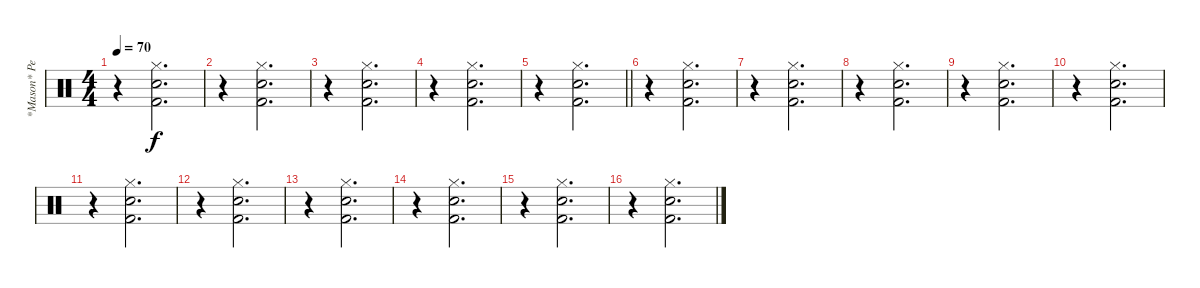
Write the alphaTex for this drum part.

\track ("*Mason* Percussion" "*Mason* Pe") {instrument percussion}
\staff {score}
\articulation defaults
\ts (4 4)
\tempo 70
\clef neutral
\ks c
r.4{dy f} ("Hi-Hat (closed)" "Snare (hit) 2" "Kick (hit) 2").2{d} |
r.4 ("Hi-Hat (closed)" "Snare (hit) 2" "Kick (hit) 2").2{d} |
r.4 ("Hi-Hat (closed)" "Snare (hit) 2" "Kick (hit) 2").2{d} |
r.4 ("Hi-Hat (closed)" "Snare (hit) 2" "Kick (hit) 2").2{d} |
\barLineRight lightlight
r.4 ("Hi-Hat (closed)" "Snare (hit) 2" "Kick (hit) 2").2{d} |
r.4 ("Hi-Hat (closed)" "Snare (hit) 2" "Kick (hit) 2").2{d} |
r.4 ("Hi-Hat (closed)" "Snare (hit) 2" "Kick (hit) 2").2{d} |
r.4 ("Hi-Hat (closed)" "Snare (hit) 2" "Kick (hit) 2").2{d} |
r.4 ("Hi-Hat (closed)" "Snare (hit) 2" "Kick (hit) 2").2{d} |
r.4 ("Hi-Hat (closed)" "Snare (hit) 2" "Kick (hit) 2").2{d} |
r.4 ("Hi-Hat (closed)" "Snare (hit) 2" "Kick (hit) 2").2{d} |
r.4 ("Hi-Hat (closed)" "Snare (hit) 2" "Kick (hit) 2").2{d} |
r.4 ("Hi-Hat (closed)" "Snare (hit) 2" "Kick (hit) 2").2{d} |
r.4 ("Hi-Hat (closed)" "Snare (hit) 2" "Kick (hit) 2").2{d} |
r.4 ("Hi-Hat (closed)" "Snare (hit) 2" "Kick (hit) 2").2{d} |
r.4 ("Hi-Hat (closed)" "Snare (hit) 2" "Kick (hit) 2").2{d}
